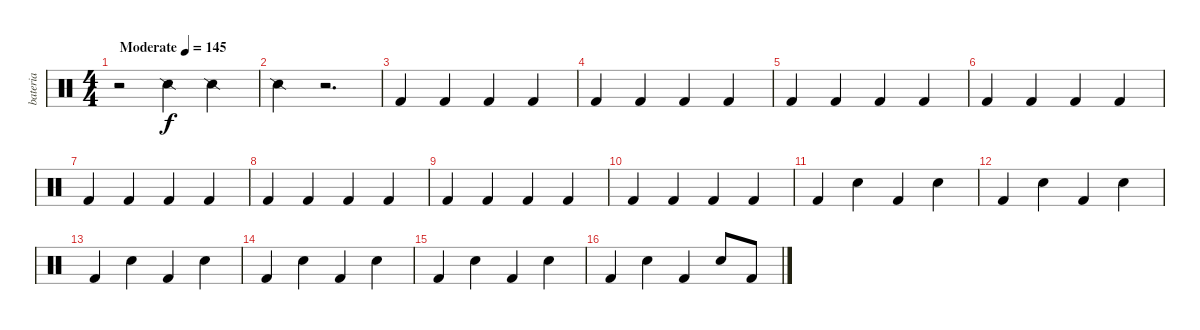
\track ("bateria" "bateria") {instrument percussion}
\staff {score}
\articulation defaults
\ts (4 4)
\tempo (145 "Moderate")
\clef neutral
\ks c
r.2{dy f} "Snare (side stick) 2".4 "Snare (side stick) 2".4 |
"Snare (side stick) 2".4 r.2{d} |
"Kick (hit) 2".4 "Kick (hit) 2".4 "Kick (hit) 2".4 "Kick (hit) 2".4 |
"Kick (hit) 2".4 "Kick (hit) 2".4 "Kick (hit) 2".4 "Kick (hit) 2".4 |
"Kick (hit) 2".4 "Kick (hit) 2".4 "Kick (hit) 2".4 "Kick (hit) 2".4 |
"Kick (hit) 2".4 "Kick (hit) 2".4 "Kick (hit) 2".4 "Kick (hit) 2".4 |
"Kick (hit) 2".4 "Kick (hit) 2".4 "Kick (hit) 2".4 "Kick (hit) 2".4 |
"Kick (hit) 2".4 "Kick (hit) 2".4 "Kick (hit) 2".4 "Kick (hit) 2".4 |
"Kick (hit) 2".4 "Kick (hit) 2".4 "Kick (hit) 2".4 "Kick (hit) 2".4 |
"Kick (hit) 2".4 "Kick (hit) 2".4 "Kick (hit) 2".4 "Kick (hit) 2".4 |
"Kick (hit) 2".4 "Electric Snare (hit)".4 "Kick (hit) 2".4 "Electric Snare (hit)".4 |
"Kick (hit) 2".4 "Electric Snare (hit)".4 "Kick (hit) 2".4 "Electric Snare (hit)".4 |
"Kick (hit) 2".4 "Electric Snare (hit)".4 "Kick (hit) 2".4 "Electric Snare (hit)".4 |
"Kick (hit) 2".4 "Electric Snare (hit)".4 "Kick (hit) 2".4 "Electric Snare (hit)".4 |
"Kick (hit) 2".4 "Electric Snare (hit)".4 "Kick (hit) 2".4 "Electric Snare (hit)".4 |
"Kick (hit) 2".4 "Electric Snare (hit)".4 "Kick (hit) 2".4 "Electric Snare (hit)".8 "Kick (hit) 2".8
